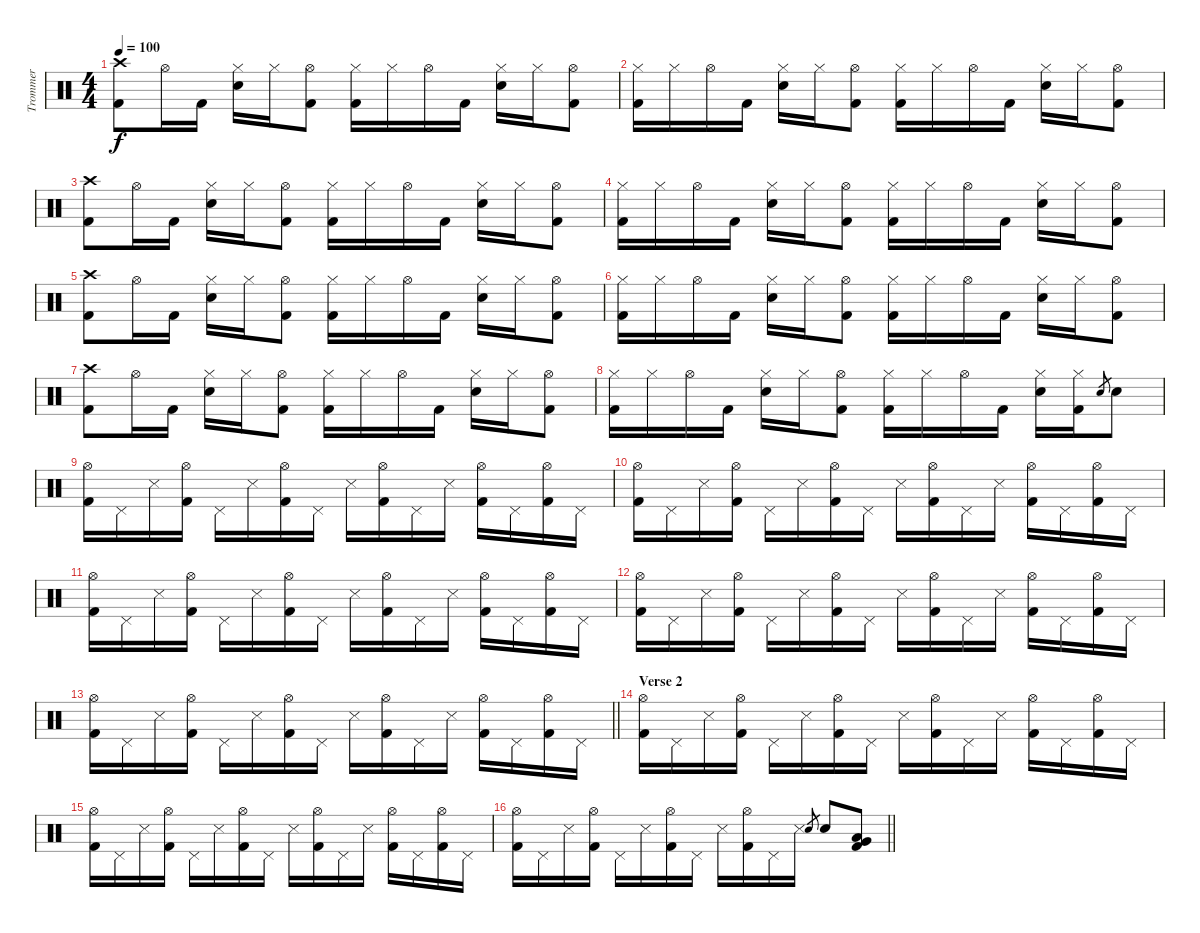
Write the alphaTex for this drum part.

\track ("Trommer" "Trommer") {instrument percussion}
\staff {score}
\articulation defaults
\ts (4 4)
\tempo 100
\clef neutral
\ks c
("Crash high (hit)" "Kick (hit) 2").8{dy f} "Hi-Hat (open)".16 "Kick (hit) 2".16 ("Hi-Hat (closed)" "Snare (hit) 2").16 "Hi-Hat (closed)".16 ("Hi-Hat (open)" "Kick (hit) 2").8 ("Hi-Hat (closed)" "Kick (hit) 2").16 "Hi-Hat (closed)".16 "Hi-Hat (open)".16 "Kick (hit) 2".16 ("Hi-Hat (closed)" "Snare (hit) 2").16 "Hi-Hat (closed)".16 ("Hi-Hat (open)" "Kick (hit) 2").8 |
("Hi-Hat (closed)" "Kick (hit) 2").16 "Hi-Hat (closed)".16 "Hi-Hat (open)".16 "Kick (hit) 2".16 ("Hi-Hat (closed)" "Snare (hit) 2").16 "Hi-Hat (closed)".16 ("Hi-Hat (open)" "Kick (hit) 2").8 ("Hi-Hat (closed)" "Kick (hit) 2").16 "Hi-Hat (closed)".16 "Hi-Hat (open)".16 "Kick (hit) 2".16 ("Hi-Hat (closed)" "Snare (hit) 2").16 "Hi-Hat (closed)".16 ("Hi-Hat (open)" "Kick (hit) 2").8 |
("Crash high (hit)" "Kick (hit) 2").8 "Hi-Hat (open)".16 "Kick (hit) 2".16 ("Hi-Hat (closed)" "Snare (hit) 2").16 "Hi-Hat (closed)".16 ("Hi-Hat (open)" "Kick (hit) 2").8 ("Hi-Hat (closed)" "Kick (hit) 2").16 "Hi-Hat (closed)".16 "Hi-Hat (open)".16 "Kick (hit) 2".16 ("Hi-Hat (closed)" "Snare (hit) 2").16 "Hi-Hat (closed)".16 ("Hi-Hat (open)" "Kick (hit) 2").8 |
("Hi-Hat (closed)" "Kick (hit) 2").16 "Hi-Hat (closed)".16 "Hi-Hat (open)".16 "Kick (hit) 2".16 ("Hi-Hat (closed)" "Snare (hit) 2").16 "Hi-Hat (closed)".16 ("Hi-Hat (open)" "Kick (hit) 2").8 ("Hi-Hat (closed)" "Kick (hit) 2").16 "Hi-Hat (closed)".16 "Hi-Hat (open)".16 "Kick (hit) 2".16 ("Hi-Hat (closed)" "Snare (hit) 2").16 "Hi-Hat (closed)".16 ("Hi-Hat (open)" "Kick (hit) 2").8 |
("Crash high (hit)" "Kick (hit) 2").8 "Hi-Hat (open)".16 "Kick (hit) 2".16 ("Hi-Hat (closed)" "Snare (hit) 2").16 "Hi-Hat (closed)".16 ("Hi-Hat (open)" "Kick (hit) 2").8 ("Hi-Hat (closed)" "Kick (hit) 2").16 "Hi-Hat (closed)".16 "Hi-Hat (open)".16 "Kick (hit) 2".16 ("Hi-Hat (closed)" "Snare (hit) 2").16 "Hi-Hat (closed)".16 ("Hi-Hat (open)" "Kick (hit) 2").8 |
("Hi-Hat (closed)" "Kick (hit) 2").16 "Hi-Hat (closed)".16 "Hi-Hat (open)".16 "Kick (hit) 2".16 ("Hi-Hat (closed)" "Snare (hit) 2").16 "Hi-Hat (closed)".16 ("Hi-Hat (open)" "Kick (hit) 2").8 ("Hi-Hat (closed)" "Kick (hit) 2").16 "Hi-Hat (closed)".16 "Hi-Hat (open)".16 "Kick (hit) 2".16 ("Hi-Hat (closed)" "Snare (hit) 2").16 "Hi-Hat (closed)".16 ("Hi-Hat (open)" "Kick (hit) 2").8 |
("Crash high (hit)" "Kick (hit) 2").8 "Hi-Hat (open)".16 "Kick (hit) 2".16 ("Hi-Hat (closed)" "Snare (hit) 2").16 "Hi-Hat (closed)".16 ("Hi-Hat (open)" "Kick (hit) 2").8 ("Hi-Hat (closed)" "Kick (hit) 2").16 "Hi-Hat (closed)".16 "Hi-Hat (open)".16 "Kick (hit) 2".16 ("Hi-Hat (closed)" "Snare (hit) 2").16 "Hi-Hat (closed)".16 ("Hi-Hat (open)" "Kick (hit) 2").8 |
("Hi-Hat (closed)" "Kick (hit) 2").16 "Hi-Hat (closed)".16 "Hi-Hat (open)".16 "Kick (hit) 2".16 ("Hi-Hat (closed)" "Snare (hit) 2").16 "Hi-Hat (closed)".16 ("Hi-Hat (open)" "Kick (hit) 2").8 ("Hi-Hat (closed)" "Kick (hit) 2").16 "Hi-Hat (closed)".16 "Hi-Hat (open)".16 "Kick (hit) 2".16 ("Hi-Hat (closed)" "Snare (hit) 2").16 ("Hi-Hat (closed)" "Kick (hit) 2").16 "Snare (hit) 2".8{gr} "Snare (hit) 2".8 |
("Hi-Hat (open)" "Kick (hit) 2").16 "Pedal Hi-Hat (hit)".16 "Snare (side stick) 3".16 ("Hi-Hat (open)" "Kick (hit) 2").16 "Pedal Hi-Hat (hit)".16 "Snare (side stick) 3".16 ("Hi-Hat (open)" "Kick (hit) 2").16 "Pedal Hi-Hat (hit)".16 "Snare (side stick) 3".16 ("Hi-Hat (open)" "Kick (hit) 2").16 "Pedal Hi-Hat (hit)".16 "Snare (side stick) 3".16 ("Hi-Hat (open)" "Kick (hit) 2").16 "Pedal Hi-Hat (hit)".16 ("Hi-Hat (open)" "Kick (hit) 2").16 "Pedal Hi-Hat (hit)".16 |
("Hi-Hat (open)" "Kick (hit) 2").16 "Pedal Hi-Hat (hit)".16 "Snare (side stick) 3".16 ("Hi-Hat (open)" "Kick (hit) 2").16 "Pedal Hi-Hat (hit)".16 "Snare (side stick) 3".16 ("Hi-Hat (open)" "Kick (hit) 2").16 "Pedal Hi-Hat (hit)".16 "Snare (side stick) 3".16 ("Hi-Hat (open)" "Kick (hit) 2").16 "Pedal Hi-Hat (hit)".16 "Snare (side stick) 3".16 ("Hi-Hat (open)" "Kick (hit) 2").16 "Pedal Hi-Hat (hit)".16 ("Hi-Hat (open)" "Kick (hit) 2").16 "Pedal Hi-Hat (hit)".16 |
("Hi-Hat (open)" "Kick (hit) 2").16 "Pedal Hi-Hat (hit)".16 "Snare (side stick) 3".16 ("Hi-Hat (open)" "Kick (hit) 2").16 "Pedal Hi-Hat (hit)".16 "Snare (side stick) 3".16 ("Hi-Hat (open)" "Kick (hit) 2").16 "Pedal Hi-Hat (hit)".16 "Snare (side stick) 3".16 ("Hi-Hat (open)" "Kick (hit) 2").16 "Pedal Hi-Hat (hit)".16 "Snare (side stick) 3".16 ("Hi-Hat (open)" "Kick (hit) 2").16 "Pedal Hi-Hat (hit)".16 ("Hi-Hat (open)" "Kick (hit) 2").16 "Pedal Hi-Hat (hit)".16 |
("Hi-Hat (open)" "Kick (hit) 2").16 "Pedal Hi-Hat (hit)".16 "Snare (side stick) 3".16 ("Hi-Hat (open)" "Kick (hit) 2").16 "Pedal Hi-Hat (hit)".16 "Snare (side stick) 3".16 ("Hi-Hat (open)" "Kick (hit) 2").16 "Pedal Hi-Hat (hit)".16 "Snare (side stick) 3".16 ("Hi-Hat (open)" "Kick (hit) 2").16 "Pedal Hi-Hat (hit)".16 "Snare (side stick) 3".16 ("Hi-Hat (open)" "Kick (hit) 2").16 "Pedal Hi-Hat (hit)".16 ("Hi-Hat (open)" "Kick (hit) 2").16 "Pedal Hi-Hat (hit)".16 |
\barLineRight lightlight
("Hi-Hat (open)" "Kick (hit) 2").16 "Pedal Hi-Hat (hit)".16 "Snare (side stick) 3".16 ("Hi-Hat (open)" "Kick (hit) 2").16 "Pedal Hi-Hat (hit)".16 "Snare (side stick) 3".16 ("Hi-Hat (open)" "Kick (hit) 2").16 "Pedal Hi-Hat (hit)".16 "Snare (side stick) 3".16 ("Hi-Hat (open)" "Kick (hit) 2").16 "Pedal Hi-Hat (hit)".16 "Snare (side stick) 3".16 ("Hi-Hat (open)" "Kick (hit) 2").16 "Pedal Hi-Hat (hit)".16 ("Hi-Hat (open)" "Kick (hit) 2").16 "Pedal Hi-Hat (hit)".16 |
\section ("" "Verse 2")
("Hi-Hat (open)" "Kick (hit) 2").16 "Pedal Hi-Hat (hit)".16 "Snare (side stick) 3".16 ("Hi-Hat (open)" "Kick (hit) 2").16 "Pedal Hi-Hat (hit)".16 "Snare (side stick) 3".16 ("Hi-Hat (open)" "Kick (hit) 2").16 "Pedal Hi-Hat (hit)".16 "Snare (side stick) 3".16 ("Hi-Hat (open)" "Kick (hit) 2").16 "Pedal Hi-Hat (hit)".16 "Snare (side stick) 3".16 ("Hi-Hat (open)" "Kick (hit) 2").16 "Pedal Hi-Hat (hit)".16 ("Hi-Hat (open)" "Kick (hit) 2").16 "Pedal Hi-Hat (hit)".16 |
("Hi-Hat (open)" "Kick (hit) 2").16 "Pedal Hi-Hat (hit)".16 "Snare (side stick) 3".16 ("Hi-Hat (open)" "Kick (hit) 2").16 "Pedal Hi-Hat (hit)".16 "Snare (side stick) 3".16 ("Hi-Hat (open)" "Kick (hit) 2").16 "Pedal Hi-Hat (hit)".16 "Snare (side stick) 3".16 ("Hi-Hat (open)" "Kick (hit) 2").16 "Pedal Hi-Hat (hit)".16 "Snare (side stick) 3".16 ("Hi-Hat (open)" "Kick (hit) 2").16 "Pedal Hi-Hat (hit)".16 ("Hi-Hat (open)" "Kick (hit) 2").16 "Pedal Hi-Hat (hit)".16 |
\barLineRight lightlight
("Hi-Hat (open)" "Kick (hit) 2").16 "Pedal Hi-Hat (hit)".16 "Snare (side stick) 3".16 ("Hi-Hat (open)" "Kick (hit) 2").16 "Pedal Hi-Hat (hit)".16 "Snare (side stick) 3".16 ("Hi-Hat (open)" "Kick (hit) 2").16 "Pedal Hi-Hat (hit)".16 "Snare (side stick) 3".16 ("Hi-Hat (open)" "Kick (hit) 2").16 "Pedal Hi-Hat (hit)".16 "Snare (side stick) 3".16 "Snare (hit) 2".8{gr} "Snare (hit) 2".8 ("Low Tom (hit)" "Very Low Tom (hit)" "Kick (hit) 2").8
